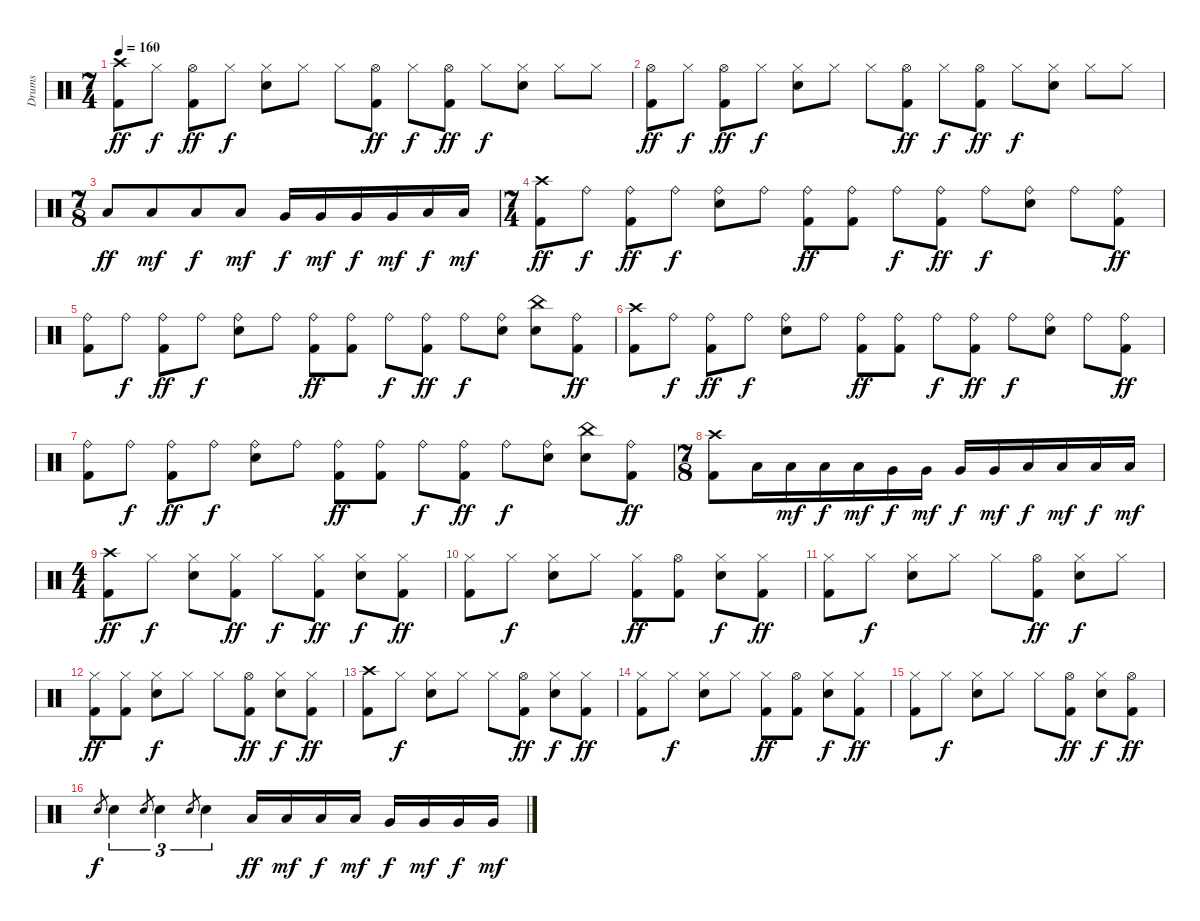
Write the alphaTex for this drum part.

\track ("Drums" "Drums") {instrument percussion}
\staff {score}
\articulation defaults
\ts (7 4)
\tempo 160
\clef neutral
\ks c
("Crash high (hit)" "Kick (hit) 2").8{dy ff} "Hi-Hat (closed)".8{dy f} ("Hi-Hat (open)" "Kick (hit) 2").8{dy ff} "Hi-Hat (closed)".8{dy f} ("Hi-Hat (closed)" "Snare (hit) 2").8 "Hi-Hat (closed)".8 "Hi-Hat (closed)".8 ("Hi-Hat (open)" "Kick (hit) 2").8{dy ff} "Hi-Hat (closed)".8{dy f} ("Hi-Hat (open)" "Kick (hit) 2").8{dy ff} "Hi-Hat (closed)".8{dy f} ("Hi-Hat (closed)" "Snare (hit) 2").8 "Hi-Hat (closed)".8 "Hi-Hat (closed)".8 |
("Hi-Hat (open)" "Kick (hit) 2").8{dy ff} "Hi-Hat (closed)".8{dy f} ("Hi-Hat (open)" "Kick (hit) 2").8{dy ff} "Hi-Hat (closed)".8{dy f} ("Hi-Hat (closed)" "Snare (hit) 2").8 "Hi-Hat (closed)".8 "Hi-Hat (closed)".8 ("Hi-Hat (open)" "Kick (hit) 2").8{dy ff} "Hi-Hat (closed)".8{dy f} ("Hi-Hat (open)" "Kick (hit) 2").8{dy ff} "Hi-Hat (closed)".8{dy f} ("Hi-Hat (closed)" "Snare (hit) 2").8 "Hi-Hat (closed)".8 "Hi-Hat (closed)".8 |
\ts (7 8)
"Low Tom (hit)".8{dy ff} "Low Tom (hit)".8{dy mf} "Low Tom (hit)".8{dy f} "Low Tom (hit)".8{dy mf} "Very Low Tom (hit)".16{dy f} "Very Low Tom (hit)".16{dy mf} "Very Low Tom (hit)".16{dy f} "Very Low Tom (hit)".16{dy mf} "Low Floor Tom (hit)".16{dy f} "Low Floor Tom (hit)".16{dy mf} |
\ts (7 4)
("Crash high (hit)" "Kick (hit) 2").8{dy ff} "Ride (bell)".8{dy f} ("Ride (bell)" "Kick (hit) 2").8{dy ff} "Ride (bell)".8{dy f} ("Ride (bell)" "Snare (hit) 2").8 "Ride (bell)".8 ("Ride (bell)" "Kick (hit) 2").8{dy ff} ("Ride (bell)" "Kick (hit) 2").8 "Ride (bell)".8{dy f} ("Ride (bell)" "Kick (hit) 2").8{dy ff} "Ride (bell)".8{dy f} ("Ride (bell)" "Snare (hit) 2").8 "Ride (bell)".8 ("Ride (bell)" "Kick (hit) 2").8{dy ff} |
("Ride (bell)" "Kick (hit) 2").8 "Ride (bell)".8{dy f} ("Ride (bell)" "Kick (hit) 2").8{dy ff} "Ride (bell)".8{dy f} ("Ride (bell)" "Snare (hit) 2").8 "Ride (bell)".8 ("Ride (bell)" "Kick (hit) 2").8{dy ff} ("Ride (bell)" "Kick (hit) 2").8 "Ride (bell)".8{dy f} ("Ride (bell)" "Kick (hit) 2").8{dy ff} "Ride (bell)".8{dy f} ("Ride (bell)" "Snare (hit) 2").8 ("China (hit)" "Snare (hit) 2").8 ("Ride (bell)" "Kick (hit) 2").8{dy ff} |
("Crash high (hit)" "Kick (hit) 2").8 "Ride (bell)".8{dy f} ("Ride (bell)" "Kick (hit) 2").8{dy ff} "Ride (bell)".8{dy f} ("Ride (bell)" "Snare (hit) 2").8 "Ride (bell)".8 ("Ride (bell)" "Kick (hit) 2").8{dy ff} ("Ride (bell)" "Kick (hit) 2").8 "Ride (bell)".8{dy f} ("Ride (bell)" "Kick (hit) 2").8{dy ff} "Ride (bell)".8{dy f} ("Ride (bell)" "Snare (hit) 2").8 "Ride (bell)".8 ("Ride (bell)" "Kick (hit) 2").8{dy ff} |
("Ride (bell)" "Kick (hit) 2").8 "Ride (bell)".8{dy f} ("Ride (bell)" "Kick (hit) 2").8{dy ff} "Ride (bell)".8{dy f} ("Ride (bell)" "Snare (hit) 2").8 "Ride (bell)".8 ("Ride (bell)" "Kick (hit) 2").8{dy ff} ("Ride (bell)" "Kick (hit) 2").8 "Ride (bell)".8{dy f} ("Ride (bell)" "Kick (hit) 2").8{dy ff} "Ride (bell)".8{dy f} ("Ride (bell)" "Snare (hit) 2").8 ("China (hit)" "Snare (hit) 2").8 ("Ride (bell)" "Kick (hit) 2").8{dy ff} |
\ts (7 8)
("Crash high (hit)" "Kick (hit) 2").8 "Low Tom (hit)".16 "Low Tom (hit)".16{dy mf} "Low Tom (hit)".16{dy f} "Low Tom (hit)".16{dy mf} "Very Low Tom (hit)".16{dy f} "Very Low Tom (hit)".16{dy mf} "Very Low Tom (hit)".16{dy f} "Very Low Tom (hit)".16{dy mf} "Low Floor Tom (hit)".16{dy f} "Low Floor Tom (hit)".16{dy mf} "Low Floor Tom (hit)".16{dy f} "Low Floor Tom (hit)".16{dy mf} |
\ts (4 4)
("Crash high (hit)" "Kick (hit) 2").8{dy ff} "Hi-Hat (closed)".8{dy f} ("Hi-Hat (closed)" "Snare (hit) 2").8 ("Hi-Hat (closed)" "Kick (hit) 2").8{dy ff} "Hi-Hat (closed)".8{dy f} ("Hi-Hat (closed)" "Kick (hit) 2").8{dy ff} ("Hi-Hat (closed)" "Snare (hit) 2").8{dy f} ("Hi-Hat (closed)" "Kick (hit) 2").8{dy ff} |
("Hi-Hat (closed)" "Kick (hit) 2").8 "Hi-Hat (closed)".8{dy f} ("Hi-Hat (closed)" "Snare (hit) 2").8 "Hi-Hat (closed)".8 ("Hi-Hat (closed)" "Kick (hit) 2").8{dy ff} ("Hi-Hat (open)" "Kick (hit) 2").8 ("Hi-Hat (closed)" "Snare (hit) 2").8{dy f} ("Hi-Hat (closed)" "Kick (hit) 2").8{dy ff} |
("Hi-Hat (closed)" "Kick (hit) 2").8 "Hi-Hat (closed)".8{dy f} ("Hi-Hat (closed)" "Snare (hit) 2").8 "Hi-Hat (closed)".8 "Hi-Hat (closed)".8 ("Hi-Hat (open)" "Kick (hit) 2").8{dy ff} ("Hi-Hat (closed)" "Snare (hit) 2").8{dy f} "Hi-Hat (closed)".8 |
("Hi-Hat (closed)" "Kick (hit) 2").8{dy ff} ("Hi-Hat (closed)" "Kick (hit) 2").8 ("Hi-Hat (closed)" "Snare (hit) 2").8{dy f} "Hi-Hat (closed)".8 "Hi-Hat (closed)".8 ("Hi-Hat (open)" "Kick (hit) 2").8{dy ff} ("Hi-Hat (closed)" "Snare (hit) 2").8{dy f} ("Hi-Hat (closed)" "Kick (hit) 2").8{dy ff} |
("Crash high (hit)" "Kick (hit) 2").8 "Hi-Hat (closed)".8{dy f} ("Hi-Hat (closed)" "Snare (hit) 2").8 "Hi-Hat (closed)".8 "Hi-Hat (closed)".8 ("Hi-Hat (open)" "Kick (hit) 2").8{dy ff} ("Hi-Hat (closed)" "Snare (hit) 2").8{dy f} ("Hi-Hat (closed)" "Kick (hit) 2").8{dy ff} |
("Hi-Hat (closed)" "Kick (hit) 2").8 "Hi-Hat (closed)".8{dy f} ("Hi-Hat (closed)" "Snare (hit) 2").8 "Hi-Hat (closed)".8 ("Hi-Hat (closed)" "Kick (hit) 2").8{dy ff} ("Hi-Hat (open)" "Kick (hit) 2").8 ("Hi-Hat (closed)" "Snare (hit) 2").8{dy f} ("Hi-Hat (closed)" "Kick (hit) 2").8{dy ff} |
("Hi-Hat (closed)" "Kick (hit) 2").8 "Hi-Hat (closed)".8{dy f} ("Hi-Hat (closed)" "Snare (hit) 2").8 "Hi-Hat (closed)".8 "Hi-Hat (closed)".8 ("Hi-Hat (open)" "Kick (hit) 2").8{dy ff} ("Hi-Hat (closed)" "Snare (hit) 2").8{dy f} ("Hi-Hat (open)" "Kick (hit) 2").8{dy ff} |
"Snare (hit) 2".8{gr dy f} "Snare (hit) 2".4{tu (3 2)} "Snare (hit) 2".8{gr} "Snare (hit) 2".4{tu (3 2)} "Snare (hit) 2".8{gr} "Snare (hit) 2".4{tu (3 2)} "Low Tom (hit)".16{dy ff} "Low Tom (hit)".16{dy mf} "Low Tom (hit)".16{dy f} "Low Tom (hit)".16{dy mf} "Very Low Tom (hit)".16{dy f} "Very Low Tom (hit)".16{dy mf} "Very Low Tom (hit)".16{dy f} "Very Low Tom (hit)".16{dy mf}
